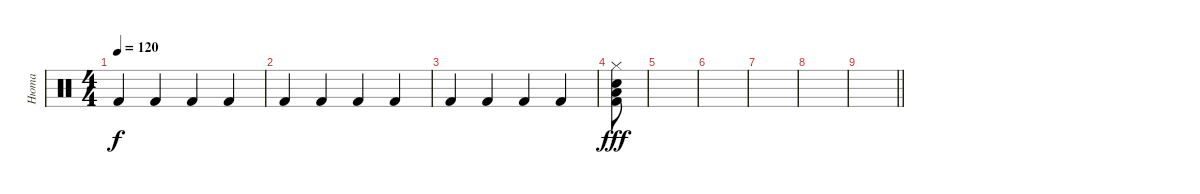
\track ("Нюта" "Нюта") {instrument percussion}
\staff {score}
\articulation defaults
\ts (4 4)
\tempo 120
\clef neutral
\ks c "Kick (hit) 2".4{dy f} "Kick (hit) 2".4 "Kick (hit) 2".4 "Kick (hit) 2".4
|
"Kick (hit) 2".4 "Kick (hit) 2".4 "Kick (hit) 2".4 "Kick (hit) 2".4 |
"Kick (hit) 2".4 "Kick (hit) 2".4 "Kick (hit) 2".4 "Kick (hit) 2".4 |
("Kick (hit) 2" "Low Floor Tom (hit)" "Snare (hit) 2" "Hi-Hat (closed)").8{dy fff} |
|
|
|
|
\barLineRight lightlight
